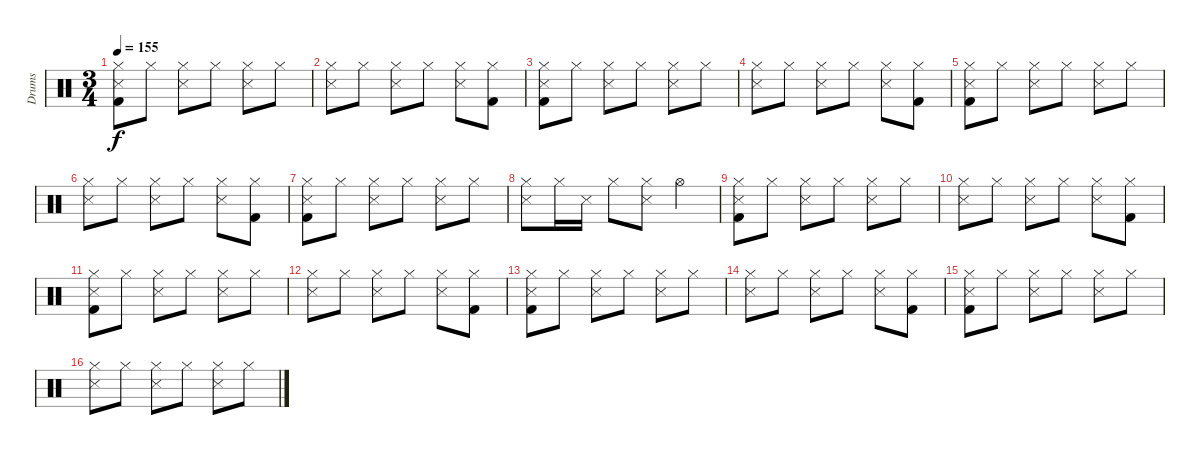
\track ("Drums" "Drums") {instrument percussion}
\staff {score}
\articulation defaults
\ts (3 4)
\tempo 155
\clef neutral
\ks c
("Hi-Hat (closed)" "Snare (side stick) 3" "Kick (hit) 2").8{dy f} "Hi-Hat (closed)".8 ("Hi-Hat (closed)" "Snare (side stick) 3").8 "Hi-Hat (closed)".8 ("Snare (side stick) 3" "Hi-Hat (closed)").8 "Hi-Hat (closed)".8 |
("Hi-Hat (closed)" "Snare (side stick) 3").8 "Hi-Hat (closed)".8 ("Hi-Hat (closed)" "Snare (side stick) 3").8 "Hi-Hat (closed)".8 ("Snare (side stick) 3" "Hi-Hat (closed)").8 ("Kick (hit) 2" "Hi-Hat (closed)").8 |
("Hi-Hat (closed)" "Snare (side stick) 3" "Kick (hit) 2").8 "Hi-Hat (closed)".8 ("Hi-Hat (closed)" "Snare (side stick) 3").8 "Hi-Hat (closed)".8 ("Snare (side stick) 3" "Hi-Hat (closed)").8 "Hi-Hat (closed)".8 |
("Hi-Hat (closed)" "Snare (side stick) 3").8 "Hi-Hat (closed)".8 ("Hi-Hat (closed)" "Snare (side stick) 3").8 "Hi-Hat (closed)".8 ("Snare (side stick) 3" "Hi-Hat (closed)").8 ("Kick (hit) 2" "Hi-Hat (closed)").8 |
("Hi-Hat (closed)" "Snare (side stick) 3" "Kick (hit) 2").8 "Hi-Hat (closed)".8 ("Hi-Hat (closed)" "Snare (side stick) 3").8 "Hi-Hat (closed)".8 ("Snare (side stick) 3" "Hi-Hat (closed)").8 "Hi-Hat (closed)".8 |
("Hi-Hat (closed)" "Snare (side stick) 3").8 "Hi-Hat (closed)".8 ("Hi-Hat (closed)" "Snare (side stick) 3").8 "Hi-Hat (closed)".8 ("Snare (side stick) 3" "Hi-Hat (closed)").8 ("Kick (hit) 2" "Hi-Hat (closed)").8 |
("Hi-Hat (closed)" "Snare (side stick) 3" "Kick (hit) 2").8 "Hi-Hat (closed)".8 ("Hi-Hat (closed)" "Snare (side stick) 3").8 "Hi-Hat (closed)".8 ("Snare (side stick) 3" "Hi-Hat (closed)").8 "Hi-Hat (closed)".8 |
("Hi-Hat (closed)" "Snare (side stick) 3").8 "Hi-Hat (closed)".16 "Snare (side stick) 3".16 "Hi-Hat (closed)".8 ("Snare (side stick) 3" "Hi-Hat (closed)").8 "Hi-Hat (open)".4 |
("Hi-Hat (closed)" "Snare (side stick) 3" "Kick (hit) 2").8 "Hi-Hat (closed)".8 ("Hi-Hat (closed)" "Snare (side stick) 3").8 "Hi-Hat (closed)".8 ("Snare (side stick) 3" "Hi-Hat (closed)").8 "Hi-Hat (closed)".8 |
("Hi-Hat (closed)" "Snare (side stick) 3").8 "Hi-Hat (closed)".8 ("Hi-Hat (closed)" "Snare (side stick) 3").8 "Hi-Hat (closed)".8 ("Snare (side stick) 3" "Hi-Hat (closed)").8 ("Kick (hit) 2" "Hi-Hat (closed)").8 |
("Hi-Hat (closed)" "Snare (side stick) 3" "Kick (hit) 2").8 "Hi-Hat (closed)".8 ("Hi-Hat (closed)" "Snare (side stick) 3").8 "Hi-Hat (closed)".8 ("Snare (side stick) 3" "Hi-Hat (closed)").8 "Hi-Hat (closed)".8 |
("Hi-Hat (closed)" "Snare (side stick) 3").8 "Hi-Hat (closed)".8 ("Hi-Hat (closed)" "Snare (side stick) 3").8 "Hi-Hat (closed)".8 ("Snare (side stick) 3" "Hi-Hat (closed)").8 ("Kick (hit) 2" "Hi-Hat (closed)").8 |
("Hi-Hat (closed)" "Snare (side stick) 3" "Kick (hit) 2").8 "Hi-Hat (closed)".8 ("Hi-Hat (closed)" "Snare (side stick) 3").8 "Hi-Hat (closed)".8 ("Snare (side stick) 3" "Hi-Hat (closed)").8 "Hi-Hat (closed)".8 |
("Hi-Hat (closed)" "Snare (side stick) 3").8 "Hi-Hat (closed)".8 ("Hi-Hat (closed)" "Snare (side stick) 3").8 "Hi-Hat (closed)".8 ("Snare (side stick) 3" "Hi-Hat (closed)").8 ("Kick (hit) 2" "Hi-Hat (closed)").8 |
("Hi-Hat (closed)" "Snare (side stick) 3" "Kick (hit) 2").8 "Hi-Hat (closed)".8 ("Hi-Hat (closed)" "Snare (side stick) 3").8 "Hi-Hat (closed)".8 ("Snare (side stick) 3" "Hi-Hat (closed)").8 "Hi-Hat (closed)".8 |
("Hi-Hat (closed)" "Snare (side stick) 3").8 "Hi-Hat (closed)".8 ("Hi-Hat (closed)" "Snare (side stick) 3").8 "Hi-Hat (closed)".8 ("Snare (side stick) 3" "Hi-Hat (closed)").8 "Hi-Hat (closed)".8
